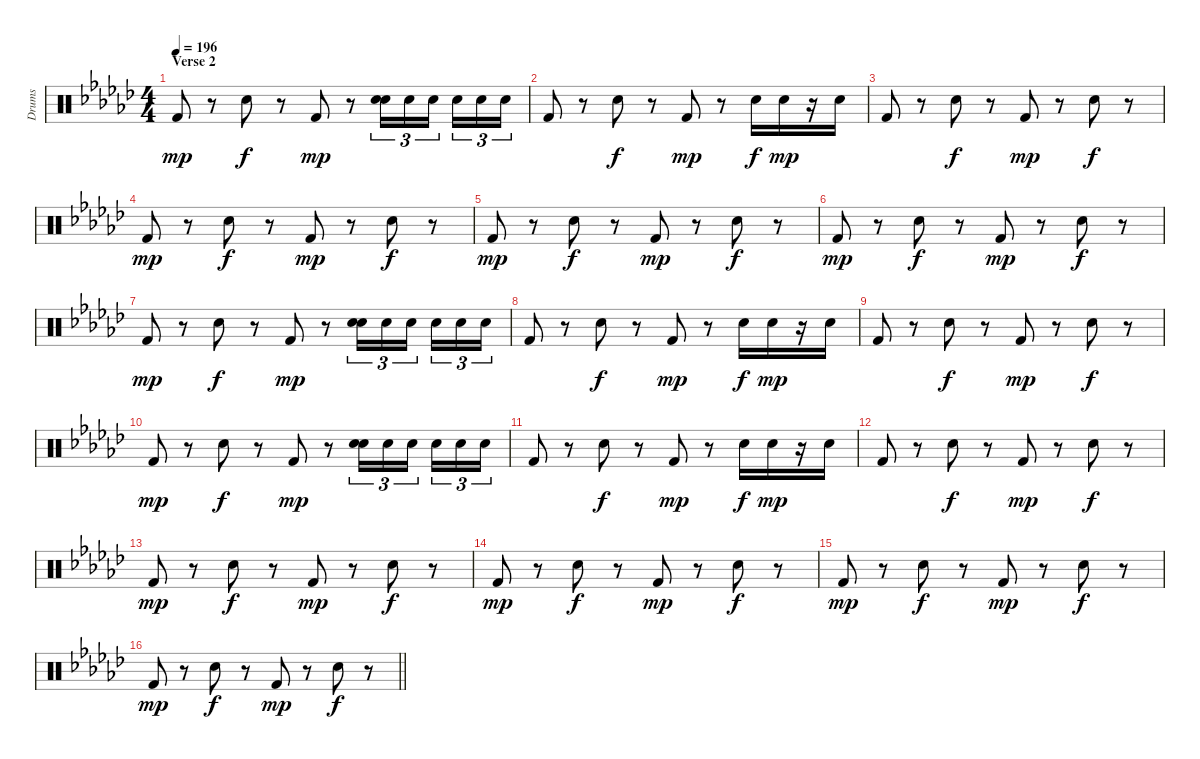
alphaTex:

\track ("Drums" "Drums") {instrument percussion}
\staff {score}
\articulation defaults
\ts (4 4)
\section ("" "Verse 2")
\tempo 196
\clef neutral
\ks gb "Kick (hit) 2".8{dy mp}
r.8 "Snare (hit) 2".8{dy f} r.8 "Kick (hit) 2".8{dy mp} r.8 ("Hand Clap (hit)" "Snare (hit) 2").16{tu (3 2)} "Hand Clap (hit)".16{tu (3 2)} "Hand Clap (hit)".16{tu (3 2) beam splitsecondary} "Hand Clap (hit)".16{tu (3 2)} "Hand Clap (hit)".16{tu (3 2)} "Hand Clap (hit)".16{tu (3 2)} |
"Kick (hit) 2".8 r.8 "Snare (hit) 2".8{dy f} r.8 "Kick (hit) 2".8{dy mp} r.8 "Snare (hit) 2".16{dy f} "Hand Clap (hit)".16{dy mp} r.16 "Hand Clap (hit)".16 |
"Kick (hit) 2".8 r.8 "Snare (hit) 2".8{dy f} r.8 "Kick (hit) 2".8{dy mp} r.8 "Snare (hit) 2".8{dy f} r.8 |
"Kick (hit) 2".8{dy mp} r.8 "Snare (hit) 2".8{dy f} r.8 "Kick (hit) 2".8{dy mp} r.8 "Snare (hit) 2".8{dy f} r.8 |
"Kick (hit) 2".8{dy mp} r.8 "Snare (hit) 2".8{dy f} r.8 "Kick (hit) 2".8{dy mp} r.8 "Snare (hit) 2".8{dy f} r.8 |
"Kick (hit) 2".8{dy mp} r.8 "Snare (hit) 2".8{dy f} r.8 "Kick (hit) 2".8{dy mp} r.8 "Snare (hit) 2".8{dy f} r.8 |
"Kick (hit) 2".8{dy mp} r.8 "Snare (hit) 2".8{dy f} r.8 "Kick (hit) 2".8{dy mp} r.8 ("Hand Clap (hit)" "Snare (hit) 2").16{tu (3 2)} "Hand Clap (hit)".16{tu (3 2)} "Hand Clap (hit)".16{tu (3 2) beam splitsecondary} "Hand Clap (hit)".16{tu (3 2)} "Hand Clap (hit)".16{tu (3 2)} "Hand Clap (hit)".16{tu (3 2)} |
"Kick (hit) 2".8 r.8 "Snare (hit) 2".8{dy f} r.8 "Kick (hit) 2".8{dy mp} r.8 "Snare (hit) 2".16{dy f} "Hand Clap (hit)".16{dy mp} r.16 "Hand Clap (hit)".16 |
"Kick (hit) 2".8 r.8 "Snare (hit) 2".8{dy f} r.8 "Kick (hit) 2".8{dy mp} r.8 "Snare (hit) 2".8{dy f} r.8 |
"Kick (hit) 2".8{dy mp} r.8 "Snare (hit) 2".8{dy f} r.8 "Kick (hit) 2".8{dy mp} r.8 ("Hand Clap (hit)" "Snare (hit) 2").16{tu (3 2)} "Hand Clap (hit)".16{tu (3 2)} "Hand Clap (hit)".16{tu (3 2) beam splitsecondary} "Hand Clap (hit)".16{tu (3 2)} "Hand Clap (hit)".16{tu (3 2)} "Hand Clap (hit)".16{tu (3 2)} |
"Kick (hit) 2".8 r.8 "Snare (hit) 2".8{dy f} r.8 "Kick (hit) 2".8{dy mp} r.8 "Snare (hit) 2".16{dy f} "Hand Clap (hit)".16{dy mp} r.16 "Hand Clap (hit)".16 |
"Kick (hit) 2".8 r.8 "Snare (hit) 2".8{dy f} r.8 "Kick (hit) 2".8{dy mp} r.8 "Snare (hit) 2".8{dy f} r.8 |
"Kick (hit) 2".8{dy mp} r.8 "Snare (hit) 2".8{dy f} r.8 "Kick (hit) 2".8{dy mp} r.8 "Snare (hit) 2".8{dy f} r.8 |
"Kick (hit) 2".8{dy mp} r.8 "Snare (hit) 2".8{dy f} r.8 "Kick (hit) 2".8{dy mp} r.8 "Snare (hit) 2".8{dy f} r.8 |
"Kick (hit) 2".8{dy mp} r.8 "Snare (hit) 2".8{dy f} r.8 "Kick (hit) 2".8{dy mp} r.8 "Snare (hit) 2".8{dy f} r.8 |
\barLineRight lightlight "Kick (hit) 2".8{dy mp}
r.8 "Snare (hit) 2".8{dy f} r.8 "Kick (hit) 2".8{dy mp} r.8 "Snare (hit) 2".8{dy f} r.8
